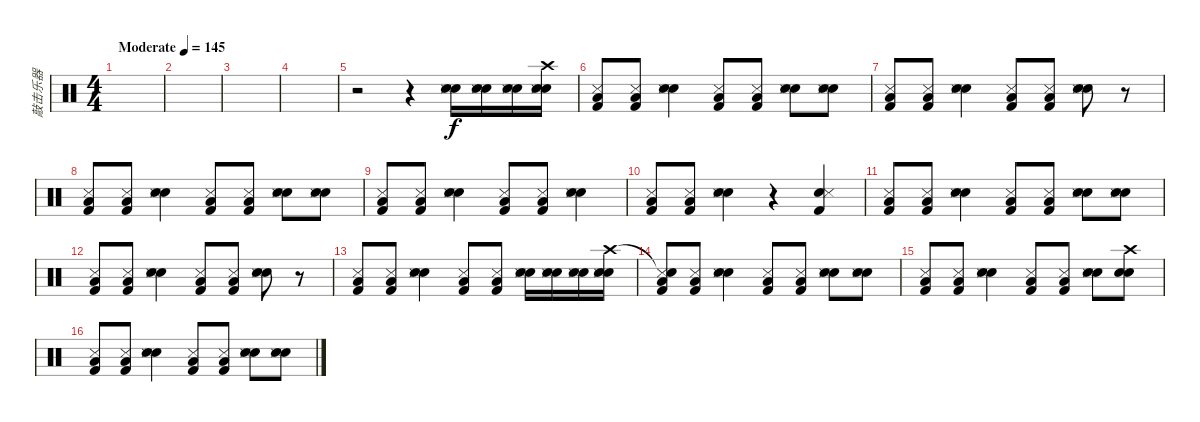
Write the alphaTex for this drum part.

\track ("敲击乐器" "敲击乐器") {instrument percussion}
\staff {score}
\articulation defaults
\ts (4 4)
\tempo (145 "Moderate")
\clef neutral
\ks c
|
|
|
|
r.2 r.4 ("Electric Snare (hit)" "Hand Clap (hit)" "Snare (side stick) 3").16 ("Electric Snare (hit)" "Hand Clap (hit)" "Snare (side stick) 3").16 ("Electric Snare (hit)" "Hand Clap (hit)" "Snare (side stick) 3").16 ("Electric Snare (hit)" "Hand Clap (hit)" "Snare (side stick) 3" "Crash high (hit)").16 |
("Low Floor Tom (hit)" "Kick (hit) 2" "Snare (side stick) 3").8 ("Low Floor Tom (hit)" "Kick (hit) 2" "Snare (side stick) 3").8 ("Snare (hit) 2" "Electric Snare (hit)" "Snare (side stick) 3").4 ("Low Floor Tom (hit)" "Kick (hit) 2" "Snare (side stick) 3").8 ("Low Floor Tom (hit)" "Kick (hit) 2" "Snare (side stick) 3").8 ("Snare (hit) 2" "Electric Snare (hit)" "Snare (side stick) 3").8 ("Snare (hit) 2" "Electric Snare (hit)" "Snare (side stick) 3").8 |
("Low Floor Tom (hit)" "Kick (hit) 2" "Snare (side stick) 3").8 ("Low Floor Tom (hit)" "Kick (hit) 2" "Snare (side stick) 3").8 ("Snare (hit) 2" "Electric Snare (hit)" "Snare (side stick) 3").4 ("Low Floor Tom (hit)" "Kick (hit) 2" "Snare (side stick) 3").8 ("Low Floor Tom (hit)" "Kick (hit) 2" "Snare (side stick) 3").8 ("Snare (hit) 2" "Electric Snare (hit)" "Snare (side stick) 3").8 r.8 |
("Low Floor Tom (hit)" "Kick (hit) 2" "Snare (side stick) 3").8 ("Low Floor Tom (hit)" "Kick (hit) 2" "Snare (side stick) 3").8 ("Snare (hit) 2" "Electric Snare (hit)" "Snare (side stick) 3").4 ("Low Floor Tom (hit)" "Kick (hit) 2" "Snare (side stick) 3").8 ("Low Floor Tom (hit)" "Kick (hit) 2" "Snare (side stick) 3").8 ("Snare (hit) 2" "Electric Snare (hit)" "Snare (side stick) 3").8 ("Snare (hit) 2" "Electric Snare (hit)" "Snare (side stick) 3").8 |
("Low Floor Tom (hit)" "Kick (hit) 2" "Snare (side stick) 3").8 ("Low Floor Tom (hit)" "Kick (hit) 2" "Snare (side stick) 3").8 ("Snare (hit) 2" "Electric Snare (hit)" "Snare (side stick) 3").4 ("Low Floor Tom (hit)" "Kick (hit) 2" "Snare (side stick) 3").8 ("Low Floor Tom (hit)" "Kick (hit) 2" "Snare (side stick) 3").8 ("Snare (hit) 2" "Electric Snare (hit)" "Snare (side stick) 3").4 |
("Low Floor Tom (hit)" "Kick (hit) 2" "Snare (side stick) 3").8 ("Low Floor Tom (hit)" "Kick (hit) 2" "Snare (side stick) 3").8 ("Snare (hit) 2" "Electric Snare (hit)" "Snare (side stick) 3").4 r.4 ("Kick (hit) 2" "Electric Snare (hit)" "Snare (side stick) 3").4 |
("Low Floor Tom (hit)" "Kick (hit) 2" "Snare (side stick) 3").8 ("Low Floor Tom (hit)" "Kick (hit) 2" "Snare (side stick) 3").8 ("Snare (hit) 2" "Electric Snare (hit)" "Snare (side stick) 3").4 ("Low Floor Tom (hit)" "Kick (hit) 2" "Snare (side stick) 3").8 ("Low Floor Tom (hit)" "Kick (hit) 2" "Snare (side stick) 3").8 ("Snare (hit) 2" "Electric Snare (hit)" "Snare (side stick) 3").8 ("Snare (hit) 2" "Electric Snare (hit)" "Snare (side stick) 3").8 |
("Low Floor Tom (hit)" "Kick (hit) 2" "Snare (side stick) 3").8 ("Low Floor Tom (hit)" "Kick (hit) 2" "Snare (side stick) 3").8 ("Snare (hit) 2" "Electric Snare (hit)" "Snare (side stick) 3").4 ("Low Floor Tom (hit)" "Kick (hit) 2" "Snare (side stick) 3").8 ("Low Floor Tom (hit)" "Kick (hit) 2" "Snare (side stick) 3").8 ("Snare (hit) 2" "Electric Snare (hit)" "Snare (side stick) 3").8 r.8 |
("Low Floor Tom (hit)" "Kick (hit) 2" "Snare (side stick) 3").8 ("Low Floor Tom (hit)" "Kick (hit) 2" "Snare (side stick) 3").8 ("Snare (hit) 2" "Electric Snare (hit)" "Snare (side stick) 3").4 ("Low Floor Tom (hit)" "Kick (hit) 2" "Snare (side stick) 3").8 ("Low Floor Tom (hit)" "Kick (hit) 2" "Snare (side stick) 3").8 ("Electric Snare (hit)" "Hand Clap (hit)" "Snare (side stick) 3").16 ("Electric Snare (hit)" "Hand Clap (hit)" "Snare (side stick) 3").16 ("Electric Snare (hit)" "Hand Clap (hit)" "Snare (side stick) 3").16 ("Electric Snare (hit)" "Hand Clap (hit)" "Snare (side stick) 3" "Crash high (hit)").16 |
("Low Floor Tom (hit)" "Kick (hit) 2" "Snare (side stick) 3" "Snare (hit)"{t}).8 ("Low Floor Tom (hit)" "Kick (hit) 2" "Snare (side stick) 3").8 ("Snare (hit) 2" "Electric Snare (hit)" "Snare (side stick) 3").4 ("Low Floor Tom (hit)" "Kick (hit) 2" "Snare (side stick) 3").8 ("Low Floor Tom (hit)" "Kick (hit) 2" "Snare (side stick) 3").8 ("Snare (hit) 2" "Electric Snare (hit)" "Snare (side stick) 3").8 ("Snare (hit) 2" "Electric Snare (hit)" "Snare (side stick) 3").8 |
("Low Floor Tom (hit)" "Kick (hit) 2" "Snare (side stick) 3").8 ("Low Floor Tom (hit)" "Kick (hit) 2" "Snare (side stick) 3").8 ("Snare (hit) 2" "Electric Snare (hit)" "Snare (side stick) 3").4 ("Low Floor Tom (hit)" "Kick (hit) 2" "Snare (side stick) 3").8 ("Low Floor Tom (hit)" "Kick (hit) 2" "Snare (side stick) 3").8 ("Snare (hit) 2" "Electric Snare (hit)" "Snare (side stick) 3").8 ("Snare (hit) 2" "Electric Snare (hit)" "Crash high (hit)").8 |
("Low Floor Tom (hit)" "Kick (hit) 2" "Snare (side stick) 3").8 ("Low Floor Tom (hit)" "Kick (hit) 2" "Snare (side stick) 3").8 ("Snare (hit) 2" "Electric Snare (hit)" "Snare (side stick) 3").4 ("Low Floor Tom (hit)" "Kick (hit) 2" "Snare (side stick) 3").8 ("Low Floor Tom (hit)" "Kick (hit) 2" "Snare (side stick) 3").8 ("Snare (hit) 2" "Electric Snare (hit)" "Snare (side stick) 3").8 ("Snare (hit) 2" "Electric Snare (hit)" "Snare (side stick) 3").8
